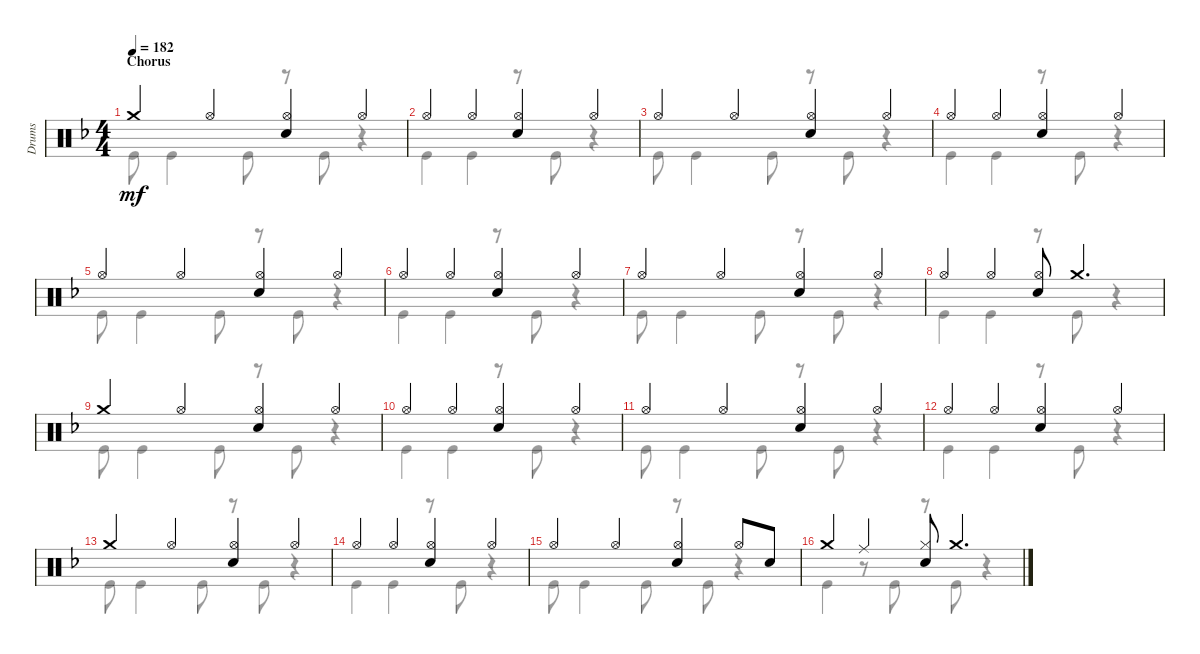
\track ("Drums" "Drums") {instrument percussion}
\staff {score}
\articulation defaults
\voice
\ts (4 4)
\section ("" "Chorus")
\tempo 182
\clef neutral
\ks f "Crash medium (hit)".4{dy mf} "Hi-Hat (open)".4
("Hi-Hat (open)" "Snare (hit) 2").4 "Hi-Hat (open)".4 |
"Hi-Hat (open)".4 "Hi-Hat (open)".4 ("Hi-Hat (open)" "Snare (hit) 2").4 "Hi-Hat (open)".4 |
"Hi-Hat (open)".4 "Hi-Hat (open)".4 ("Hi-Hat (open)" "Snare (hit) 2").4 "Hi-Hat (open)".4 |
"Hi-Hat (open)".4 "Hi-Hat (open)".4 ("Hi-Hat (open)" "Snare (hit) 2").4 "Hi-Hat (open)".4 |
"Hi-Hat (open)".4 "Hi-Hat (open)".4 ("Hi-Hat (open)" "Snare (hit) 2").4 "Hi-Hat (open)".4 |
"Hi-Hat (open)".4 "Hi-Hat (open)".4 ("Hi-Hat (open)" "Snare (hit) 2").4 "Hi-Hat (open)".4 |
"Hi-Hat (open)".4 "Hi-Hat (open)".4 ("Hi-Hat (open)" "Snare (hit) 2").4 "Hi-Hat (open)".4 |
"Hi-Hat (open)".4 "Hi-Hat (open)".4 ("Hi-Hat (open)" "Snare (hit) 2").8 "Crash medium (hit)".4{d} |
"Crash medium (hit)".4 "Hi-Hat (open)".4 ("Hi-Hat (open)" "Snare (hit) 2").4 "Hi-Hat (open)".4 |
"Hi-Hat (open)".4 "Hi-Hat (open)".4 ("Hi-Hat (open)" "Snare (hit) 2").4 "Hi-Hat (open)".4 |
"Hi-Hat (open)".4 "Hi-Hat (open)".4 ("Hi-Hat (open)" "Snare (hit) 2").4 "Hi-Hat (open)".4 |
"Hi-Hat (open)".4 "Hi-Hat (open)".4 ("Hi-Hat (open)" "Snare (hit) 2").4 "Hi-Hat (open)".4 |
"Crash medium (hit)".4 "Hi-Hat (open)".4 ("Hi-Hat (open)" "Snare (hit) 2").4 "Hi-Hat (open)".4 |
"Hi-Hat (open)".4 "Hi-Hat (open)".4 ("Hi-Hat (open)" "Snare (hit) 2").4 "Hi-Hat (open)".4 |
"Hi-Hat (open)".4 "Hi-Hat (open)".4 ("Hi-Hat (open)" "Snare (hit) 2").4 "Hi-Hat (open)".8 "Snare (hit) 2".8 |
"Crash medium (hit)".4 "Ride (middle)".4 ("Hi-Hat (closed)" "Snare (hit) 2").8 "Crash medium (hit)".4{d}
\voice
\clef neutral
\ottava regular
\simile none
\ks f "Kick (hit)".8{dy mf} "Kick (hit)".4 "Kick (hit)".8
r.8 "Kick (hit)".8 r.4 |
"Kick (hit)".4 "Kick (hit)".4 r.8 "Kick (hit)".8 r.4 |
"Kick (hit)".8 "Kick (hit)".4 "Kick (hit)".8 r.8 "Kick (hit)".8 r.4 |
"Kick (hit)".4 "Kick (hit)".4 r.8 "Kick (hit)".8 r.4 |
"Kick (hit)".8 "Kick (hit)".4 "Kick (hit)".8 r.8 "Kick (hit)".8 r.4 |
"Kick (hit)".4 "Kick (hit)".4 r.8 "Kick (hit)".8 r.4 |
"Kick (hit)".8 "Kick (hit)".4 "Kick (hit)".8 r.8 "Kick (hit)".8 r.4 |
"Kick (hit)".4 "Kick (hit)".4 r.8 "Kick (hit)".8 r.4 |
"Kick (hit)".8 "Kick (hit)".4 "Kick (hit)".8 r.8 "Kick (hit)".8 r.4 |
"Kick (hit)".4 "Kick (hit)".4 r.8 "Kick (hit)".8 r.4 |
"Kick (hit)".8 "Kick (hit)".4 "Kick (hit)".8 r.8 "Kick (hit)".8 r.4 |
"Kick (hit)".4 "Kick (hit)".4 r.8 "Kick (hit)".8 r.4 |
"Kick (hit)".8 "Kick (hit)".4 "Kick (hit)".8 r.8 "Kick (hit)".8 r.4 |
"Kick (hit)".4 "Kick (hit)".4 r.8 "Kick (hit)".8 r.4 |
"Kick (hit)".8 "Kick (hit)".4 "Kick (hit)".8 r.8 "Kick (hit)".8 r.4 |
"Kick (hit)".4 r.8 "Kick (hit)".8 r.8 "Kick (hit)".8 r.4
